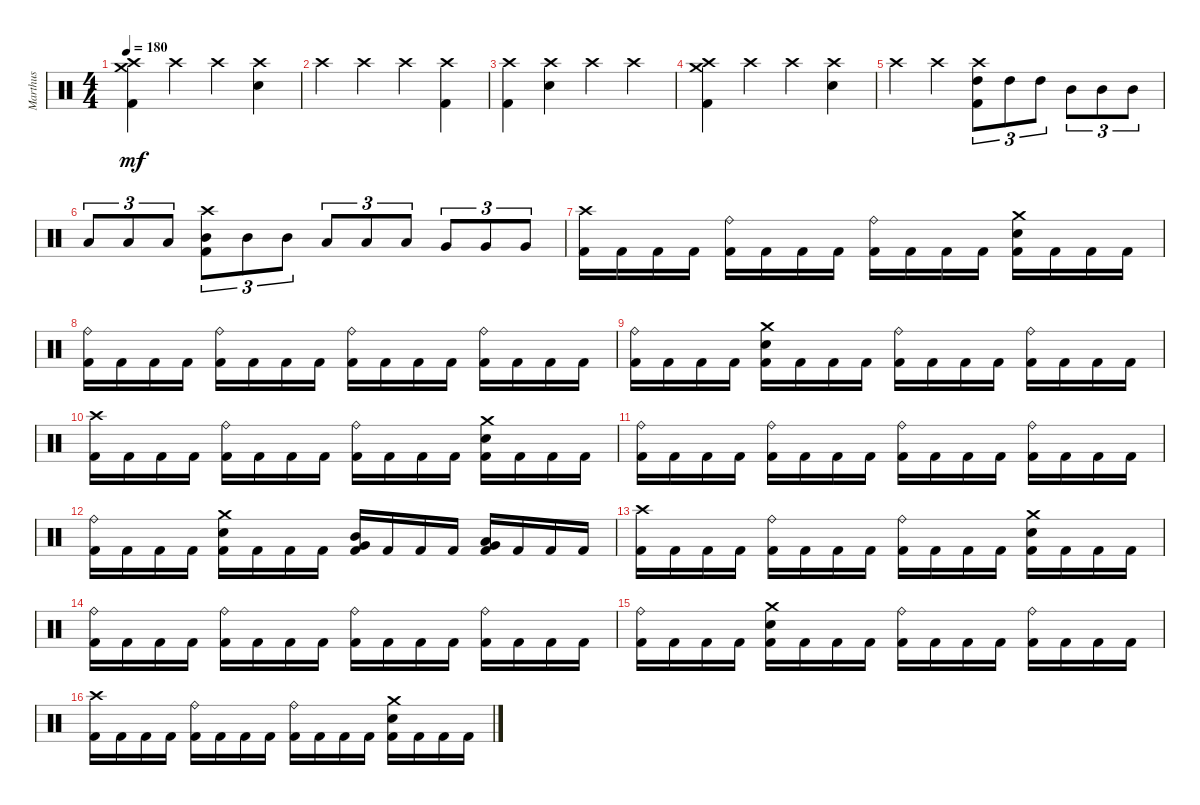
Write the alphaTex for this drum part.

\track ("Marthus" "Marthus") {instrument percussion}
\staff {score}
\articulation defaults
\ts (4 4)
\tempo 180
\clef neutral
\ks c
("Crash medium (hit)" "Crash high (hit)" "Kick (hit) 2").4{dy mf} "Crash high (hit)".4 "Crash high (hit)".4 ("Crash high (hit)" "Electric Snare (hit)").4 |
"Crash high (hit)".4 "Crash high (hit)".4 "Crash high (hit)".4 ("Crash high (hit)" "Kick (hit) 2").4 |
("Crash high (hit)" "Kick (hit) 2").4 ("Crash high (hit)" "Electric Snare (hit)").4 "Crash high (hit)".4 "Crash high (hit)".4 |
("Crash medium (hit)" "Crash high (hit)" "Kick (hit) 2").4 "Crash high (hit)".4 "Crash high (hit)".4 ("Crash high (hit)" "Electric Snare (hit)").4 |
"Crash high (hit)".4 "Crash high (hit)".4 ("Crash high (hit)" "High Tom (hit)" "Kick (hit) 2").8{tu (3 2)} "High Tom (hit)".8{tu (3 2)} "High Tom (hit)".8{tu (3 2)} "Mid Tom (hit)".8{tu (3 2)} "Mid Tom (hit)".8{tu (3 2)} "Mid Tom (hit)".8{tu (3 2)} |
"Low Tom (hit)".8{tu (3 2)} "Low Tom (hit)".8{tu (3 2)} "Low Tom (hit)".8{tu (3 2)} ("Crash high (hit)" "Mid Tom (hit)" "Kick (hit) 2").8{tu (3 2)} "Mid Tom (hit)".8{tu (3 2)} "Mid Tom (hit)".8{tu (3 2)} "Low Tom (hit)".8{tu (3 2)} "Low Tom (hit)".8{tu (3 2)} "Low Tom (hit)".8{tu (3 2)} "Very Low Tom (hit)".8{tu (3 2)} "Very Low Tom (hit)".8{tu (3 2)} "Very Low Tom (hit)".8{tu (3 2)} |
("Crash high (hit)" "Kick (hit) 2").16 "Kick (hit) 2".16 "Kick (hit) 2".16 "Kick (hit) 2".16 ("Ride (bell)" "Kick (hit) 2").16 "Kick (hit) 2".16 "Kick (hit) 2".16 "Kick (hit) 2".16 ("Ride (bell)" "Kick (hit) 2").16 "Kick (hit) 2".16 "Kick (hit) 2".16 "Kick (hit) 2".16 ("Crash medium (hit)" "Electric Snare (hit)" "Kick (hit) 2").16 "Kick (hit) 2".16 "Kick (hit) 2".16 "Kick (hit) 2".16 |
("Ride (bell)" "Kick (hit) 2").16 "Kick (hit) 2".16 "Kick (hit) 2".16 "Kick (hit) 2".16 ("Ride (bell)" "Kick (hit) 2").16 "Kick (hit) 2".16 "Kick (hit) 2".16 "Kick (hit) 2".16 ("Ride (bell)" "Kick (hit) 2").16 "Kick (hit) 2".16 "Kick (hit) 2".16 "Kick (hit) 2".16 ("Ride (bell)" "Kick (hit) 2").16 "Kick (hit) 2".16 "Kick (hit) 2".16 "Kick (hit) 2".16 |
("Ride (bell)" "Kick (hit) 2").16 "Kick (hit) 2".16 "Kick (hit) 2".16 "Kick (hit) 2".16 ("Crash medium (hit)" "Electric Snare (hit)" "Kick (hit) 2").16 "Kick (hit) 2".16 "Kick (hit) 2".16 "Kick (hit) 2".16 ("Ride (bell)" "Kick (hit) 2").16 "Kick (hit) 2".16 "Kick (hit) 2".16 "Kick (hit) 2".16 ("Ride (bell)" "Kick (hit) 2").16 "Kick (hit) 2".16 "Kick (hit) 2".16 "Kick (hit) 2".16 |
("Crash high (hit)" "Kick (hit) 2").16 "Kick (hit) 2".16 "Kick (hit) 2".16 "Kick (hit) 2".16 ("Ride (bell)" "Kick (hit) 2").16 "Kick (hit) 2".16 "Kick (hit) 2".16 "Kick (hit) 2".16 ("Ride (bell)" "Kick (hit) 2").16 "Kick (hit) 2".16 "Kick (hit) 2".16 "Kick (hit) 2".16 ("Crash medium (hit)" "Electric Snare (hit)" "Kick (hit) 2").16 "Kick (hit) 2".16 "Kick (hit) 2".16 "Kick (hit) 2".16 |
("Ride (bell)" "Kick (hit) 2").16 "Kick (hit) 2".16 "Kick (hit) 2".16 "Kick (hit) 2".16 ("Ride (bell)" "Kick (hit) 2").16 "Kick (hit) 2".16 "Kick (hit) 2".16 "Kick (hit) 2".16 ("Ride (bell)" "Kick (hit) 2").16 "Kick (hit) 2".16 "Kick (hit) 2".16 "Kick (hit) 2".16 ("Ride (bell)" "Kick (hit) 2").16 "Kick (hit) 2".16 "Kick (hit) 2".16 "Kick (hit) 2".16 |
("Ride (bell)" "Kick (hit) 2").16 "Kick (hit) 2".16 "Kick (hit) 2".16 "Kick (hit) 2".16 ("Crash medium (hit)" "Electric Snare (hit)" "Kick (hit) 2").16 "Kick (hit) 2".16 "Kick (hit) 2".16 "Kick (hit) 2".16 ("Mid Tom (hit)" "Very Low Tom (hit)" "Kick (hit) 2").16 "Kick (hit) 2".16 "Kick (hit) 2".16 "Kick (hit) 2".16 ("Low Tom (hit)" "Very Low Tom (hit)" "Kick (hit) 2").16 "Kick (hit) 2".16 "Kick (hit) 2".16 "Kick (hit) 2".16 |
("Crash high (hit)" "Kick (hit) 2").16 "Kick (hit) 2".16 "Kick (hit) 2".16 "Kick (hit) 2".16 ("Ride (bell)" "Kick (hit) 2").16 "Kick (hit) 2".16 "Kick (hit) 2".16 "Kick (hit) 2".16 ("Ride (bell)" "Kick (hit) 2").16 "Kick (hit) 2".16 "Kick (hit) 2".16 "Kick (hit) 2".16 ("Crash medium (hit)" "Electric Snare (hit)" "Kick (hit) 2").16 "Kick (hit) 2".16 "Kick (hit) 2".16 "Kick (hit) 2".16 |
("Ride (bell)" "Kick (hit) 2").16 "Kick (hit) 2".16 "Kick (hit) 2".16 "Kick (hit) 2".16 ("Ride (bell)" "Kick (hit) 2").16 "Kick (hit) 2".16 "Kick (hit) 2".16 "Kick (hit) 2".16 ("Ride (bell)" "Kick (hit) 2").16 "Kick (hit) 2".16 "Kick (hit) 2".16 "Kick (hit) 2".16 ("Ride (bell)" "Kick (hit) 2").16 "Kick (hit) 2".16 "Kick (hit) 2".16 "Kick (hit) 2".16 |
("Ride (bell)" "Kick (hit) 2").16 "Kick (hit) 2".16 "Kick (hit) 2".16 "Kick (hit) 2".16 ("Crash medium (hit)" "Electric Snare (hit)" "Kick (hit) 2").16 "Kick (hit) 2".16 "Kick (hit) 2".16 "Kick (hit) 2".16 ("Ride (bell)" "Kick (hit) 2").16 "Kick (hit) 2".16 "Kick (hit) 2".16 "Kick (hit) 2".16 ("Ride (bell)" "Kick (hit) 2").16 "Kick (hit) 2".16 "Kick (hit) 2".16 "Kick (hit) 2".16 |
("Crash high (hit)" "Kick (hit) 2").16 "Kick (hit) 2".16 "Kick (hit) 2".16 "Kick (hit) 2".16 ("Ride (bell)" "Kick (hit) 2").16 "Kick (hit) 2".16 "Kick (hit) 2".16 "Kick (hit) 2".16 ("Ride (bell)" "Kick (hit) 2").16 "Kick (hit) 2".16 "Kick (hit) 2".16 "Kick (hit) 2".16 ("Crash medium (hit)" "Electric Snare (hit)" "Kick (hit) 2").16 "Kick (hit) 2".16 "Kick (hit) 2".16 "Kick (hit) 2".16
